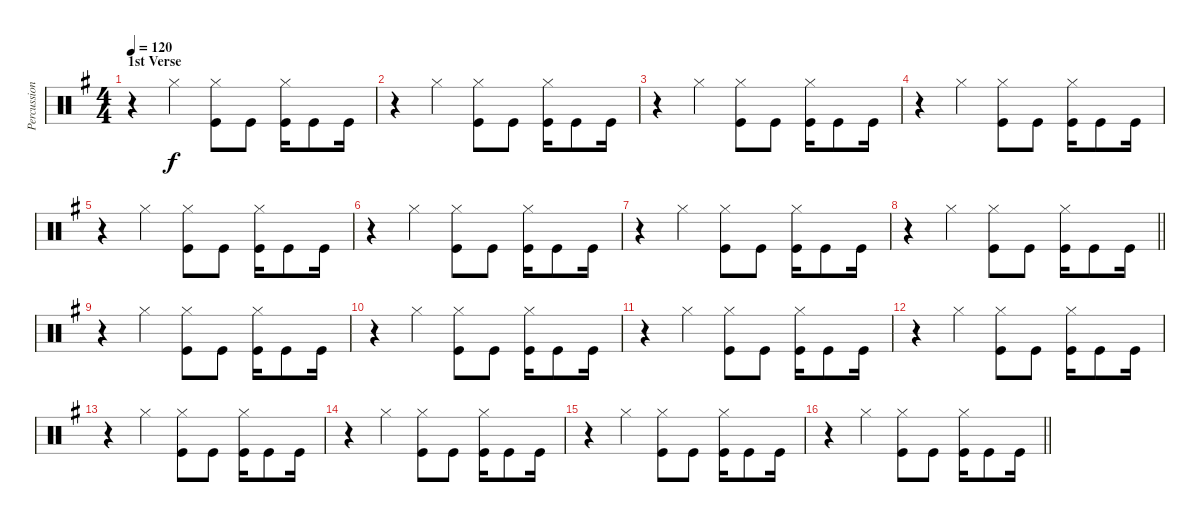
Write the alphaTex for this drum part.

\track ("Percussion" "Percussion") {instrument percussion}
\staff {score}
\articulation defaults
\ts (4 4)
\section ("" "1st Verse")
\tempo 120
\clef neutral
\ks eminor
r.4{dy f} "Hi-Hat (closed)".4 ("Kick (hit)" "Hi-Hat (closed)").8 "Kick (hit)".8 ("Kick (hit)" "Hi-Hat (closed)").16 "Kick (hit)".8 "Kick (hit)".16 |
r.4 "Hi-Hat (closed)".4 ("Kick (hit)" "Hi-Hat (closed)").8 "Kick (hit)".8 ("Kick (hit)" "Hi-Hat (closed)").16 "Kick (hit)".8 "Kick (hit)".16 |
r.4 "Hi-Hat (closed)".4 ("Kick (hit)" "Hi-Hat (closed)").8 "Kick (hit)".8 ("Kick (hit)" "Hi-Hat (closed)").16 "Kick (hit)".8 "Kick (hit)".16 |
r.4 "Hi-Hat (closed)".4 ("Kick (hit)" "Hi-Hat (closed)").8 "Kick (hit)".8 ("Kick (hit)" "Hi-Hat (closed)").16 "Kick (hit)".8 "Kick (hit)".16 |
r.4 "Hi-Hat (closed)".4 ("Kick (hit)" "Hi-Hat (closed)").8 "Kick (hit)".8 ("Kick (hit)" "Hi-Hat (closed)").16 "Kick (hit)".8 "Kick (hit)".16 |
r.4 "Hi-Hat (closed)".4 ("Kick (hit)" "Hi-Hat (closed)").8 "Kick (hit)".8 ("Kick (hit)" "Hi-Hat (closed)").16 "Kick (hit)".8 "Kick (hit)".16 |
r.4 "Hi-Hat (closed)".4 ("Kick (hit)" "Hi-Hat (closed)").8 "Kick (hit)".8 ("Kick (hit)" "Hi-Hat (closed)").16 "Kick (hit)".8 "Kick (hit)".16 |
\barLineRight lightlight
r.4 "Hi-Hat (closed)".4 ("Kick (hit)" "Hi-Hat (closed)").8 "Kick (hit)".8 ("Kick (hit)" "Hi-Hat (closed)").16 "Kick (hit)".8 "Kick (hit)".16 |
r.4 "Hi-Hat (closed)".4 ("Kick (hit)" "Hi-Hat (closed)").8 "Kick (hit)".8 ("Kick (hit)" "Hi-Hat (closed)").16 "Kick (hit)".8 "Kick (hit)".16 |
r.4 "Hi-Hat (closed)".4 ("Kick (hit)" "Hi-Hat (closed)").8 "Kick (hit)".8 ("Kick (hit)" "Hi-Hat (closed)").16 "Kick (hit)".8 "Kick (hit)".16 |
r.4 "Hi-Hat (closed)".4 ("Kick (hit)" "Hi-Hat (closed)").8 "Kick (hit)".8 ("Kick (hit)" "Hi-Hat (closed)").16 "Kick (hit)".8 "Kick (hit)".16 |
r.4 "Hi-Hat (closed)".4 ("Kick (hit)" "Hi-Hat (closed)").8 "Kick (hit)".8 ("Kick (hit)" "Hi-Hat (closed)").16 "Kick (hit)".8 "Kick (hit)".16 |
r.4 "Hi-Hat (closed)".4 ("Kick (hit)" "Hi-Hat (closed)").8 "Kick (hit)".8 ("Kick (hit)" "Hi-Hat (closed)").16 "Kick (hit)".8 "Kick (hit)".16 |
r.4 "Hi-Hat (closed)".4 ("Kick (hit)" "Hi-Hat (closed)").8 "Kick (hit)".8 ("Kick (hit)" "Hi-Hat (closed)").16 "Kick (hit)".8 "Kick (hit)".16 |
r.4 "Hi-Hat (closed)".4 ("Kick (hit)" "Hi-Hat (closed)").8 "Kick (hit)".8 ("Kick (hit)" "Hi-Hat (closed)").16 "Kick (hit)".8 "Kick (hit)".16 |
\barLineRight lightlight
r.4 "Hi-Hat (closed)".4 ("Kick (hit)" "Hi-Hat (closed)").8 "Kick (hit)".8 ("Kick (hit)" "Hi-Hat (closed)").16 "Kick (hit)".8 "Kick (hit)".16
